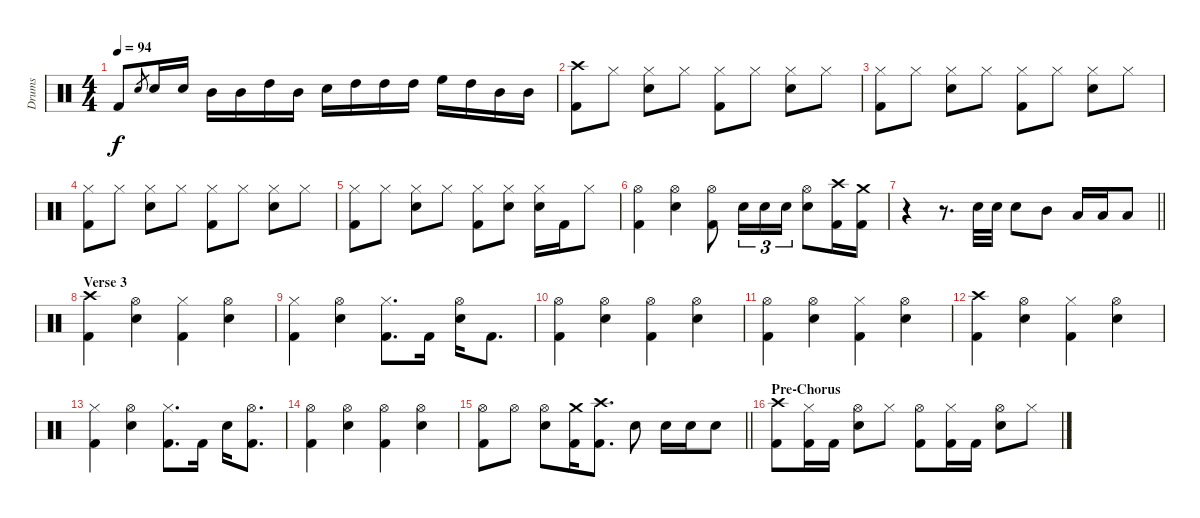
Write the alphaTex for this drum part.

\track ("Drums" "Drums") {instrument percussion}
\staff {score}
\articulation defaults
\ts (4 4)
\tempo 94
\clef neutral
\ks c "Kick (hit) 2".8{dy f} "Snare (hit) 2".8{gr} "Snare (hit) 2".16 "Snare (hit) 2".16 "Mid Tom (hit)".16 "Mid Tom (hit)".16 "High Tom (hit)".16 "Mid Tom (hit)".16 "Snare (hit) 2".16 "High Tom (hit)".16 "High Tom (hit)".16 "High Tom (hit)".16 "High Floor Tom (hit)".16 "High Tom (hit)".16 "Mid Tom (hit)".16 "Mid Tom (hit)".16
|
("Crash high (hit)" "Kick (hit) 2").8 "Hi-Hat (closed)".8 ("Hi-Hat (closed)" "Snare (hit) 2").8 "Hi-Hat (closed)".8 ("Hi-Hat (closed)" "Kick (hit) 2").8 "Hi-Hat (closed)".8 ("Hi-Hat (closed)" "Snare (hit) 2").8 "Hi-Hat (closed)".8 |
("Hi-Hat (closed)" "Kick (hit) 2").8 "Hi-Hat (closed)".8 ("Hi-Hat (closed)" "Snare (hit) 2").8 "Hi-Hat (closed)".8 ("Hi-Hat (closed)" "Kick (hit) 2").8 "Hi-Hat (closed)".8 ("Hi-Hat (closed)" "Snare (hit) 2").8 "Hi-Hat (closed)".8 |
("Hi-Hat (closed)" "Kick (hit) 2").8 "Hi-Hat (closed)".8 ("Hi-Hat (closed)" "Snare (hit) 2").8 "Hi-Hat (closed)".8 ("Hi-Hat (closed)" "Kick (hit) 2").8 "Hi-Hat (closed)".8 ("Hi-Hat (closed)" "Snare (hit) 2").8 "Hi-Hat (closed)".8 |
("Hi-Hat (closed)" "Kick (hit) 2").8 "Hi-Hat (closed)".8 ("Hi-Hat (closed)" "Snare (hit) 2").8 "Hi-Hat (closed)".8 ("Hi-Hat (closed)" "Kick (hit) 2").8 ("Hi-Hat (closed)" "Snare (hit) 2").8 ("Hi-Hat (closed)" "Snare (hit) 2").16 "Kick (hit) 2".16 "Hi-Hat (closed)".8 |
("Hi-Hat (open)" "Kick (hit) 2").4 ("Hi-Hat (open)" "Snare (hit) 2").4 ("Hi-Hat (open)" "Kick (hit) 2").8 "Snare (hit) 2".16{tu (3 2)} "Snare (hit) 2".16{tu (3 2)} "Snare (hit) 2".16{tu (3 2)} ("Hi-Hat (open)" "Snare (hit) 2").8 ("Crash high (hit)" "Kick (hit) 2").16 ("Crash medium (hit)" "Kick (hit) 2").16 |
\barLineRight lightlight
r.4 r.8{d} "Snare (hit) 2".32 "Snare (hit) 2".32 "Snare (hit) 2".8 "Mid Tom (hit)".8 "Low Tom (hit)".16 "Low Tom (hit)".16 "Low Tom (hit)".8 |
\section ("" "Verse 3")
("Crash high (hit)" "Kick (hit) 2").4 ("Hi-Hat (open)" "Snare (hit) 2").4 ("Hi-Hat (closed)" "Kick (hit) 2").4 ("Hi-Hat (open)" "Snare (hit) 2").4 |
("Hi-Hat (closed)" "Kick (hit) 2").4 ("Hi-Hat (open)" "Snare (hit) 2").4 ("Hi-Hat (closed)" "Kick (hit) 2").8{d} "Kick (hit) 2".16 ("Hi-Hat (open)" "Snare (hit) 2").16 "Kick (hit) 2".8{d} |
("Hi-Hat (open)" "Kick (hit) 2").4 ("Hi-Hat (open)" "Snare (hit) 2").4 ("Hi-Hat (open)" "Kick (hit) 2").4 ("Hi-Hat (open)" "Snare (hit) 2").4 |
("Hi-Hat (open)" "Kick (hit) 2").4 ("Hi-Hat (open)" "Snare (hit) 2").4 ("Hi-Hat (closed)" "Kick (hit) 2").4 ("Hi-Hat (open)" "Snare (hit) 2").4 |
("Crash high (hit)" "Kick (hit) 2").4 ("Hi-Hat (open)" "Snare (hit) 2").4 ("Hi-Hat (closed)" "Kick (hit) 2").4 ("Hi-Hat (open)" "Snare (hit) 2").4 |
("Hi-Hat (closed)" "Kick (hit) 2").4 ("Hi-Hat (open)" "Snare (hit) 2").4 ("Hi-Hat (closed)" "Kick (hit) 2").8{d} "Kick (hit) 2".16 "Snare (hit) 2".16 ("Hi-Hat (open)" "Kick (hit) 2").8{d} |
("Hi-Hat (open)" "Kick (hit) 2").4 ("Hi-Hat (open)" "Snare (hit) 2").4 ("Hi-Hat (open)" "Kick (hit) 2").4 ("Hi-Hat (open)" "Snare (hit) 2").4 |
\barLineRight lightlight
("Hi-Hat (open)" "Kick (hit) 2").8 "Hi-Hat (open)".8 ("Hi-Hat (open)" "Snare (hit) 2").8 ("Crash medium (hit)" "Kick (hit) 2").16 ("Crash high (hit)" "Kick (hit) 2").8{d} "Snare (hit) 2".8 "Snare (hit) 2".16 "Snare (hit) 2".16 "Snare (hit) 2".8 |
\section ("" "Pre-Chorus")
("Crash high (hit)" "Kick (hit) 2").8 ("Hi-Hat (closed)" "Kick (hit) 2").16 "Kick (hit) 2".16 ("Hi-Hat (open)" "Snare (hit) 2").8 "Hi-Hat (closed)".8 ("Hi-Hat (open)" "Kick (hit) 2").8 ("Hi-Hat (closed)" "Kick (hit) 2").16 "Kick (hit) 2".16 ("Hi-Hat (open)" "Snare (hit) 2").8 "Hi-Hat (closed)".8
